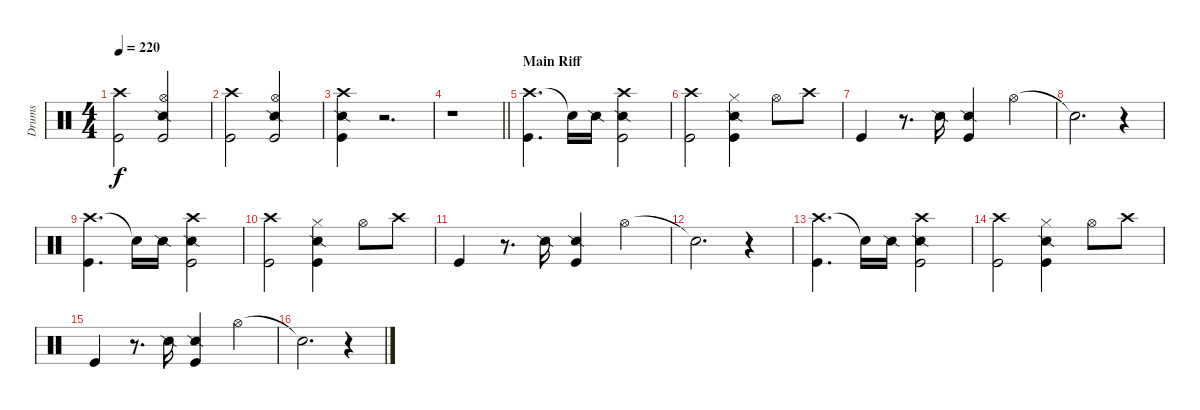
\track ("Drums" "Drums") {instrument percussion}
\staff {score}
\articulation defaults
\ts (4 4)
\tempo 220
\clef neutral
\ks c
("Crash high (hit)" "Kick (hit)").2{dy f} ("Hi-Hat (open)" "Snare (side stick) 2" "Kick (hit)").2 |
("Crash high (hit)" "Kick (hit)").2 ("Hi-Hat (open)" "Snare (side stick) 2" "Kick (hit)").2 |
("Crash high (hit)" "Snare (side stick) 2" "Kick (hit)").4 r.2{d} |
\barLineRight lightlight
r.1 |
\section ("" "Main Riff")
("Crash high (hit)" "Kick (hit)").4{d} "Snare (hit)"{t}.16 "Snare (side stick) 2".16 ("Crash high (hit)" "Snare (side stick) 2" "Kick (hit)").2 |
("Crash high (hit)" "Kick (hit)").2 ("Hi-Hat (closed)" "Snare (side stick) 2" "Kick (hit)").4 "Hi-Hat (open)".8 "Crash high (hit)".8 |
"Kick (hit)".4 r.8{d} "Snare (side stick) 2".16 ("Snare (side stick) 2" "Kick (hit)").4 "Hi-Hat (open)".4 |
"Snare (hit)"{t}.2{d} r.4 |
("Crash high (hit)" "Kick (hit)").4{d} "Snare (hit)"{t}.16 "Snare (side stick) 2".16 ("Crash high (hit)" "Snare (side stick) 2" "Kick (hit)").2 |
("Crash high (hit)" "Kick (hit)").2 ("Hi-Hat (closed)" "Snare (side stick) 2" "Kick (hit)").4 "Hi-Hat (open)".8 "Crash high (hit)".8 |
"Kick (hit)".4 r.8{d} "Snare (side stick) 2".16 ("Snare (side stick) 2" "Kick (hit)").4 "Hi-Hat (open)".4 |
"Snare (hit)"{t}.2{d} r.4 |
("Crash high (hit)" "Kick (hit)").4{d} "Snare (hit)"{t}.16 "Snare (side stick) 2".16 ("Crash high (hit)" "Snare (side stick) 2" "Kick (hit)").2 |
("Crash high (hit)" "Kick (hit)").2 ("Hi-Hat (closed)" "Snare (side stick) 2" "Kick (hit)").4 "Hi-Hat (open)".8 "Crash high (hit)".8 |
"Kick (hit)".4 r.8{d} "Snare (side stick) 2".16 ("Snare (side stick) 2" "Kick (hit)").4 "Hi-Hat (open)".4 |
"Snare (hit)"{t}.2{d} r.4
